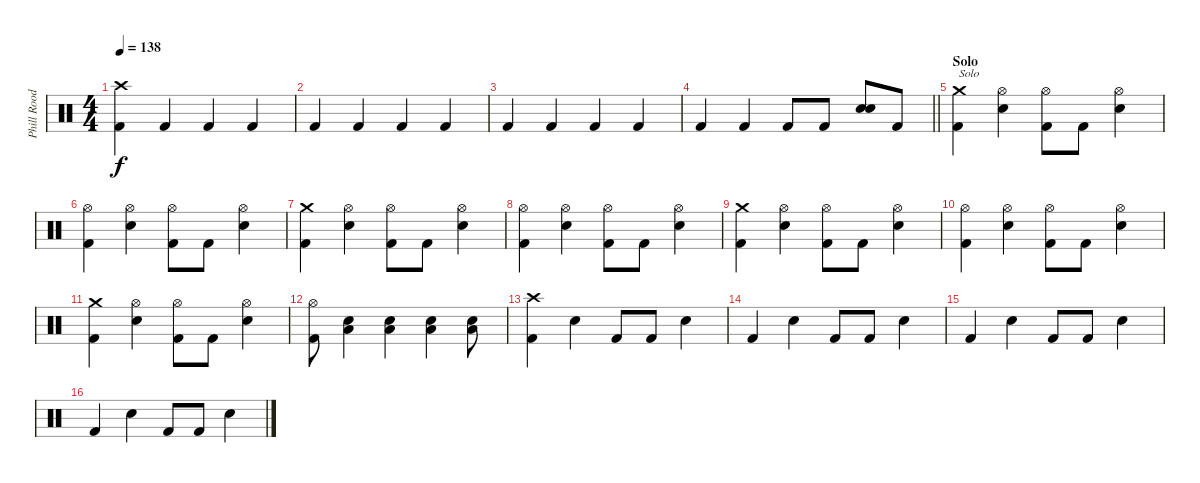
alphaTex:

\track ("Phill Rood" "Phill Rood") {instrument percussion}
\staff {score}
\articulation defaults
\ts (4 4)
\tempo 138
\clef neutral
\ks c
("Kick (hit) 2" "Crash high (hit)").4{dy f} "Kick (hit) 2".4 "Kick (hit) 2".4 "Kick (hit) 2".4 |
"Kick (hit) 2".4 "Kick (hit) 2".4 "Kick (hit) 2".4 "Kick (hit) 2".4 |
"Kick (hit) 2".4 "Kick (hit) 2".4 "Kick (hit) 2".4 "Kick (hit) 2".4 |
\barLineRight lightlight "Kick (hit) 2".4 "Kick (hit) 2".4 "Kick (hit) 2".8 "Kick (hit) 2".8
("Snare (hit) 2" "Snare (hit) 2").8 "Kick (hit) 2".8 |
\section ("" "Solo")
("Kick (hit) 2" "Crash medium (hit)").4{txt "Solo"} ("Snare (hit) 2" "Hi-Hat (open)").4 ("Kick (hit) 2" "Hi-Hat (open)").8 "Kick (hit) 2".8 ("Snare (hit) 2" "Hi-Hat (open)").4 |
("Kick (hit) 2" "Hi-Hat (open)").4 ("Snare (hit) 2" "Hi-Hat (open)").4 ("Kick (hit) 2" "Hi-Hat (open)").8 "Kick (hit) 2".8 ("Snare (hit) 2" "Hi-Hat (open)").4 |
("Kick (hit) 2" "Crash medium (hit)").4 ("Snare (hit) 2" "Hi-Hat (open)").4 ("Kick (hit) 2" "Hi-Hat (open)").8 "Kick (hit) 2".8 ("Snare (hit) 2" "Hi-Hat (open)").4 |
("Kick (hit) 2" "Hi-Hat (open)").4 ("Snare (hit) 2" "Hi-Hat (open)").4 ("Kick (hit) 2" "Hi-Hat (open)").8 "Kick (hit) 2".8 ("Snare (hit) 2" "Hi-Hat (open)").4 |
("Kick (hit) 2" "Crash medium (hit)").4 ("Snare (hit) 2" "Hi-Hat (open)").4 ("Kick (hit) 2" "Hi-Hat (open)").8 "Kick (hit) 2".8 ("Snare (hit) 2" "Hi-Hat (open)").4 |
("Kick (hit) 2" "Hi-Hat (open)").4 ("Snare (hit) 2" "Hi-Hat (open)").4 ("Kick (hit) 2" "Hi-Hat (open)").8 "Kick (hit) 2".8 ("Snare (hit) 2" "Hi-Hat (open)").4 |
("Kick (hit) 2" "Crash medium (hit)").4 ("Snare (hit) 2" "Hi-Hat (open)").4 ("Kick (hit) 2" "Hi-Hat (open)").8 "Kick (hit) 2".8 ("Snare (hit) 2" "Hi-Hat (open)").4 |
("Kick (hit) 2" "Hi-Hat (open)").8 ("Snare (hit) 2" "Low Tom (hit)").4 ("Snare (hit) 2" "Low Tom (hit)").4 ("Snare (hit) 2" "Low Tom (hit)").4 ("Snare (hit) 2" "Low Tom (hit)").8 |
("Kick (hit) 2" "Crash high (hit)").4 "Snare (hit) 2".4 "Kick (hit) 2".8 "Kick (hit) 2".8 "Snare (hit) 2".4 |
"Kick (hit) 2".4 "Snare (hit) 2".4 "Kick (hit) 2".8 "Kick (hit) 2".8 "Snare (hit) 2".4 |
"Kick (hit) 2".4 "Snare (hit) 2".4 "Kick (hit) 2".8 "Kick (hit) 2".8 "Snare (hit) 2".4 |
"Kick (hit) 2".4 "Snare (hit) 2".4 "Kick (hit) 2".8 "Kick (hit) 2".8 "Snare (hit) 2".4
